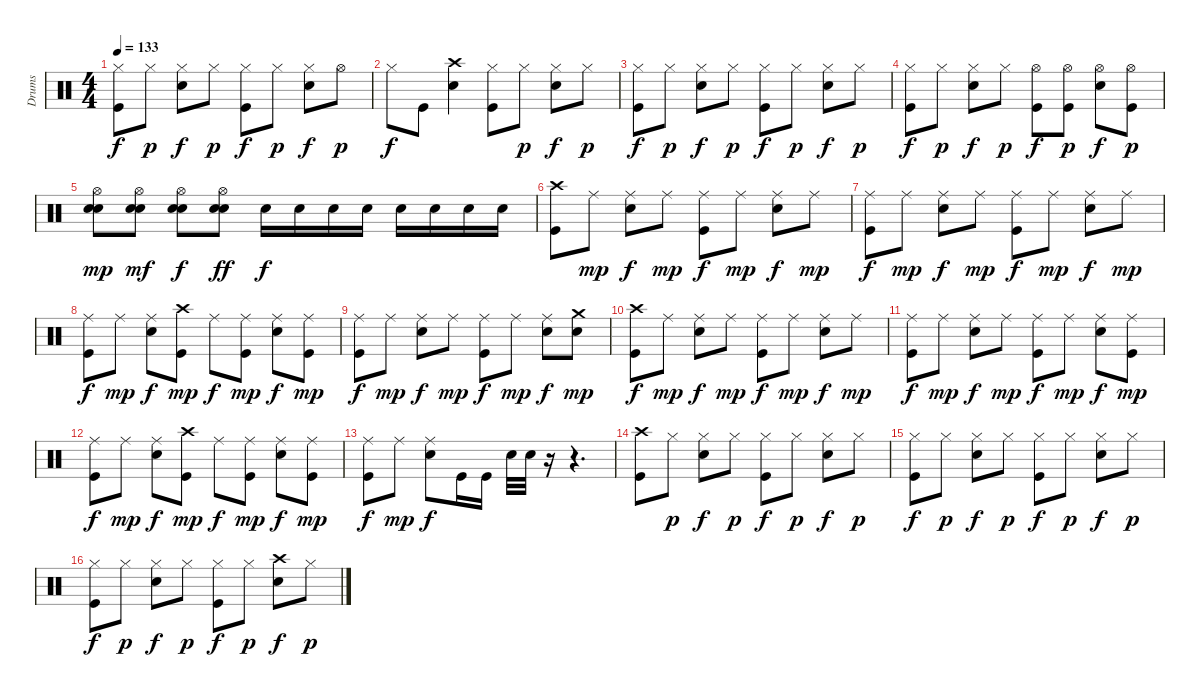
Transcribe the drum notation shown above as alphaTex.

\track ("Drums" "Drums") {instrument percussion}
\staff {score}
\articulation defaults
\ts (4 4)
\tempo 133
\clef neutral
\ks c
("Hi-Hat (closed)" "Kick (hit)").8{dy f} "Hi-Hat (closed)".8{dy p} ("Hi-Hat (closed)" "Snare (hit) 2").8{dy f} "Hi-Hat (closed)".8{dy p} ("Hi-Hat (closed)" "Kick (hit)").8{dy f} "Hi-Hat (closed)".8{dy p} ("Hi-Hat (closed)" "Snare (hit) 2").8{dy f} "Hi-Hat (open)".8{dy p} |
"Hi-Hat (closed)".8{dy f} "Kick (hit)".8 ("Crash high (hit)" "Snare (hit) 2").4 ("Hi-Hat (closed)" "Kick (hit)").8 "Hi-Hat (closed)".8{dy p} ("Hi-Hat (closed)" "Snare (hit) 2").8{dy f} "Hi-Hat (closed)".8{dy p} |
("Hi-Hat (closed)" "Kick (hit)").8{dy f} "Hi-Hat (closed)".8{dy p} ("Hi-Hat (closed)" "Snare (hit) 2").8{dy f} "Hi-Hat (closed)".8{dy p} ("Hi-Hat (closed)" "Kick (hit)").8{dy f} "Hi-Hat (closed)".8{dy p} ("Hi-Hat (closed)" "Snare (hit) 2").8{dy f} "Hi-Hat (closed)".8{dy p} |
("Hi-Hat (closed)" "Kick (hit)").8{dy f} "Hi-Hat (closed)".8{dy p} ("Hi-Hat (closed)" "Snare (hit) 2").8{dy f} "Hi-Hat (closed)".8{dy p} ("Hi-Hat (open)" "Kick (hit)").8{dy f} ("Hi-Hat (open)" "Kick (hit)").8{dy p} ("Hi-Hat (open)" "Snare (hit) 2").8{dy f} ("Hi-Hat (open)" "Kick (hit)").8{dy p} |
("Hi-Hat (open)" "Snare (hit) 2" "Electric Snare (hit)").8{dy mp} ("Hi-Hat (open)" "Snare (hit) 2" "Electric Snare (hit)").8{dy mf} ("Hi-Hat (open)" "Snare (hit) 2" "Electric Snare (hit)").8{dy f} ("Hi-Hat (open)" "Snare (hit) 2" "Electric Snare (hit)").8{dy ff} "Snare (hit) 2".16{dy f} "Snare (hit) 2".16 "Snare (hit) 2".16 "Snare (hit) 2".16 "Snare (hit) 2".16 "Snare (hit) 2".16 "Snare (hit) 2".16 "Snare (hit) 2".16 |
("Crash high (hit)" "Kick (hit)").8 "Ride (middle)".8{dy mp} ("Ride (middle)" "Snare (hit) 2").8{dy f} "Ride (middle)".8{dy mp} ("Ride (middle)" "Kick (hit)").8{dy f} "Ride (middle)".8{dy mp} ("Ride (middle)" "Snare (hit) 2").8{dy f} "Ride (middle)".8{dy mp} |
("Ride (middle)" "Kick (hit)").8{dy f} "Ride (middle)".8{dy mp} ("Ride (middle)" "Snare (hit) 2").8{dy f} "Ride (middle)".8{dy mp} ("Ride (middle)" "Kick (hit)").8{dy f} "Ride (middle)".8{dy mp} ("Ride (middle)" "Snare (hit) 2").8{dy f} "Ride (middle)".8{dy mp} |
("Ride (middle)" "Kick (hit)").8{dy f} "Ride (middle)".8{dy mp} ("Ride (middle)" "Snare (hit) 2").8{dy f} ("Crash high (hit)" "Kick (hit)").8{dy mp} "Ride (middle)".8{dy f} ("Ride (middle)" "Kick (hit)").8{dy mp} ("Ride (middle)" "Snare (hit) 2").8{dy f} ("Ride (middle)" "Kick (hit)").8{dy mp} |
("Ride (middle)" "Kick (hit)").8{dy f} "Ride (middle)".8{dy mp} ("Ride (middle)" "Snare (hit) 2").8{dy f} "Ride (middle)".8{dy mp} ("Ride (middle)" "Kick (hit)").8{dy f} "Ride (middle)".8{dy mp} ("Ride (middle)" "Snare (hit) 2").8{dy f} ("Crash medium (hit)" "Snare (hit) 2").8{dy mp} |
("Crash high (hit)" "Kick (hit)").8{dy f} "Ride (middle)".8{dy mp} ("Ride (middle)" "Snare (hit) 2").8{dy f} "Ride (middle)".8{dy mp} ("Ride (middle)" "Kick (hit)").8{dy f} "Ride (middle)".8{dy mp} ("Ride (middle)" "Snare (hit) 2").8{dy f} "Ride (middle)".8{dy mp} |
("Ride (middle)" "Kick (hit)").8{dy f} "Ride (middle)".8{dy mp} ("Ride (middle)" "Snare (hit) 2").8{dy f} "Ride (middle)".8{dy mp} ("Ride (middle)" "Kick (hit)").8{dy f} "Ride (middle)".8{dy mp} ("Ride (middle)" "Snare (hit) 2").8{dy f} ("Ride (middle)" "Kick (hit)").8{dy mp} |
("Ride (middle)" "Kick (hit)").8{dy f} "Ride (middle)".8{dy mp} ("Ride (middle)" "Snare (hit) 2").8{dy f} ("Crash high (hit)" "Kick (hit)").8{dy mp} "Ride (middle)".8{dy f} ("Ride (middle)" "Kick (hit)").8{dy mp} ("Ride (middle)" "Snare (hit) 2").8{dy f} ("Ride (middle)" "Kick (hit)").8{dy mp} |
("Ride (middle)" "Kick (hit)").8{dy f} "Ride (middle)".8{dy mp} ("Ride (middle)" "Snare (hit) 2").8{dy f} "Kick (hit)".16 "Kick (hit)".16 "Snare (hit) 2".32 "Snare (hit) 2".32 r.16 r.4{d} |
("Crash high (hit)" "Kick (hit)").8 "Hi-Hat (closed)".8{dy p} ("Hi-Hat (closed)" "Snare (hit) 2").8{dy f} "Hi-Hat (closed)".8{dy p} ("Hi-Hat (closed)" "Kick (hit)").8{dy f} "Hi-Hat (closed)".8{dy p} ("Hi-Hat (closed)" "Snare (hit) 2").8{dy f} "Hi-Hat (closed)".8{dy p} |
("Hi-Hat (closed)" "Kick (hit)").8{dy f} "Hi-Hat (closed)".8{dy p} ("Hi-Hat (closed)" "Snare (hit) 2").8{dy f} "Hi-Hat (closed)".8{dy p} ("Hi-Hat (closed)" "Kick (hit)").8{dy f} "Hi-Hat (closed)".8{dy p} ("Hi-Hat (closed)" "Snare (hit) 2").8{dy f} "Hi-Hat (closed)".8{dy p} |
("Hi-Hat (closed)" "Kick (hit)").8{dy f} "Hi-Hat (closed)".8{dy p} ("Hi-Hat (closed)" "Snare (hit) 2").8{dy f} "Hi-Hat (closed)".8{dy p} ("Hi-Hat (closed)" "Kick (hit)").8{dy f} "Hi-Hat (closed)".8{dy p} ("Crash high (hit)" "Snare (hit) 2").8{dy f} "Hi-Hat (closed)".8{dy p}
